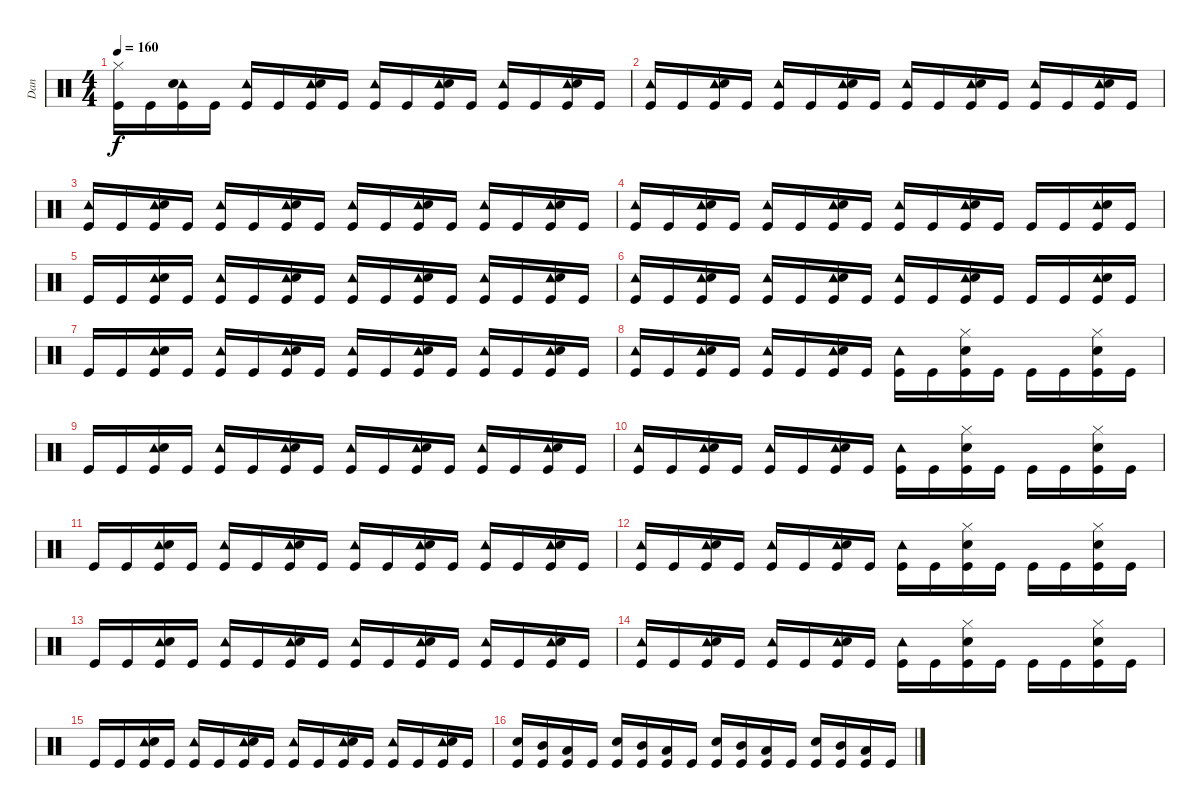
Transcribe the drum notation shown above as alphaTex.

\track ("Dan" "Dan") {instrument percussion}
\staff {score}
\articulation defaults
\ts (4 4)
\tempo 160
\clef neutral
\ks c
("Hi-Hat (closed)" "Kick (hit)").16{dy f} "Kick (hit)".16 ("Tambourine (hit)" "Snare (hit) 2" "Kick (hit)").16 "Kick (hit)".16 ("Tambourine (hit)" "Kick (hit)").16 "Kick (hit)".16 ("Tambourine (hit)" "Snare (hit) 2" "Kick (hit)").16 "Kick (hit)".16 ("Tambourine (hit)" "Kick (hit)").16 "Kick (hit)".16 ("Tambourine (hit)" "Snare (hit) 2" "Kick (hit)").16 "Kick (hit)".16 ("Tambourine (hit)" "Kick (hit)").16 "Kick (hit)".16 ("Tambourine (hit)" "Snare (hit) 2" "Kick (hit)").16 "Kick (hit)".16 |
("Tambourine (hit)" "Kick (hit)").16 "Kick (hit)".16 ("Tambourine (hit)" "Snare (hit) 2" "Kick (hit)").16 "Kick (hit)".16 ("Tambourine (hit)" "Kick (hit)").16 "Kick (hit)".16 ("Tambourine (hit)" "Snare (hit) 2" "Kick (hit)").16 "Kick (hit)".16 ("Tambourine (hit)" "Kick (hit)").16 "Kick (hit)".16 ("Tambourine (hit)" "Snare (hit) 2" "Kick (hit)").16 "Kick (hit)".16 ("Tambourine (hit)" "Kick (hit)").16 "Kick (hit)".16 ("Tambourine (hit)" "Snare (hit) 2" "Kick (hit)").16 "Kick (hit)".16 |
("Tambourine (hit)" "Kick (hit)").16 "Kick (hit)".16 ("Tambourine (hit)" "Snare (hit) 2" "Kick (hit)").16 "Kick (hit)".16 ("Tambourine (hit)" "Kick (hit)").16 "Kick (hit)".16 ("Tambourine (hit)" "Snare (hit) 2" "Kick (hit)").16 "Kick (hit)".16 ("Tambourine (hit)" "Kick (hit)").16 "Kick (hit)".16 ("Tambourine (hit)" "Snare (hit) 2" "Kick (hit)").16 "Kick (hit)".16 ("Tambourine (hit)" "Kick (hit)").16 "Kick (hit)".16 ("Tambourine (hit)" "Snare (hit) 2" "Kick (hit)").16 "Kick (hit)".16 |
("Tambourine (hit)" "Kick (hit)").16 "Kick (hit)".16 ("Tambourine (hit)" "Snare (hit) 2" "Kick (hit)").16 "Kick (hit)".16 ("Tambourine (hit)" "Kick (hit)").16 "Kick (hit)".16 ("Tambourine (hit)" "Snare (hit) 2" "Kick (hit)").16 "Kick (hit)".16 ("Tambourine (hit)" "Kick (hit)").16 "Kick (hit)".16 ("Tambourine (hit)" "Snare (hit) 2" "Kick (hit)").16 "Kick (hit)".16 "Kick (hit)".16 "Kick (hit)".16 ("Tambourine (hit)" "Snare (hit) 2" "Kick (hit)").16 "Kick (hit)".16 |
"Kick (hit)".16 "Kick (hit)".16 ("Tambourine (hit)" "Snare (hit) 2" "Kick (hit)").16 "Kick (hit)".16 ("Tambourine (hit)" "Kick (hit)").16 "Kick (hit)".16 ("Tambourine (hit)" "Snare (hit) 2" "Kick (hit)").16 "Kick (hit)".16 ("Tambourine (hit)" "Kick (hit)").16 "Kick (hit)".16 ("Tambourine (hit)" "Snare (hit) 2" "Kick (hit)").16 "Kick (hit)".16 ("Tambourine (hit)" "Kick (hit)").16 "Kick (hit)".16 ("Tambourine (hit)" "Snare (hit) 2" "Kick (hit)").16 "Kick (hit)".16 |
("Tambourine (hit)" "Kick (hit)").16 "Kick (hit)".16 ("Tambourine (hit)" "Snare (hit) 2" "Kick (hit)").16 "Kick (hit)".16 ("Tambourine (hit)" "Kick (hit)").16 "Kick (hit)".16 ("Tambourine (hit)" "Snare (hit) 2" "Kick (hit)").16 "Kick (hit)".16 ("Tambourine (hit)" "Kick (hit)").16 "Kick (hit)".16 ("Tambourine (hit)" "Snare (hit) 2" "Kick (hit)").16 "Kick (hit)".16 "Kick (hit)".16 "Kick (hit)".16 ("Tambourine (hit)" "Snare (hit) 2" "Kick (hit)").16 "Kick (hit)".16 |
"Kick (hit)".16 "Kick (hit)".16 ("Tambourine (hit)" "Snare (hit) 2" "Kick (hit)").16 "Kick (hit)".16 ("Tambourine (hit)" "Kick (hit)").16 "Kick (hit)".16 ("Tambourine (hit)" "Snare (hit) 2" "Kick (hit)").16 "Kick (hit)".16 ("Tambourine (hit)" "Kick (hit)").16 "Kick (hit)".16 ("Tambourine (hit)" "Snare (hit) 2" "Kick (hit)").16 "Kick (hit)".16 ("Tambourine (hit)" "Kick (hit)").16 "Kick (hit)".16 ("Tambourine (hit)" "Snare (hit) 2" "Kick (hit)").16 "Kick (hit)".16 |
("Tambourine (hit)" "Kick (hit)").16 "Kick (hit)".16 ("Tambourine (hit)" "Snare (hit) 2" "Kick (hit)").16 "Kick (hit)".16 ("Tambourine (hit)" "Kick (hit)").16 "Kick (hit)".16 ("Tambourine (hit)" "Snare (hit) 2" "Kick (hit)").16 "Kick (hit)".16 ("Tambourine (hit)" "Kick (hit)").16 "Kick (hit)".16 ("Hi-Hat (closed)" "Snare (hit) 2" "Kick (hit)").16 "Kick (hit)".16 "Kick (hit)".16 "Kick (hit)".16 ("Hi-Hat (closed)" "Snare (hit) 2" "Kick (hit)").16 "Kick (hit)".16 |
"Kick (hit)".16 "Kick (hit)".16 ("Tambourine (hit)" "Snare (hit) 2" "Kick (hit)").16 "Kick (hit)".16 ("Tambourine (hit)" "Kick (hit)").16 "Kick (hit)".16 ("Tambourine (hit)" "Snare (hit) 2" "Kick (hit)").16 "Kick (hit)".16 ("Tambourine (hit)" "Kick (hit)").16 "Kick (hit)".16 ("Tambourine (hit)" "Snare (hit) 2" "Kick (hit)").16 "Kick (hit)".16 ("Tambourine (hit)" "Kick (hit)").16 "Kick (hit)".16 ("Tambourine (hit)" "Snare (hit) 2" "Kick (hit)").16 "Kick (hit)".16 |
("Tambourine (hit)" "Kick (hit)").16 "Kick (hit)".16 ("Tambourine (hit)" "Snare (hit) 2" "Kick (hit)").16 "Kick (hit)".16 ("Tambourine (hit)" "Kick (hit)").16 "Kick (hit)".16 ("Tambourine (hit)" "Snare (hit) 2" "Kick (hit)").16 "Kick (hit)".16 ("Tambourine (hit)" "Kick (hit)").16 "Kick (hit)".16 ("Hi-Hat (closed)" "Snare (hit) 2" "Kick (hit)").16 "Kick (hit)".16 "Kick (hit)".16 "Kick (hit)".16 ("Hi-Hat (closed)" "Snare (hit) 2" "Kick (hit)").16 "Kick (hit)".16 |
"Kick (hit)".16 "Kick (hit)".16 ("Tambourine (hit)" "Snare (hit) 2" "Kick (hit)").16 "Kick (hit)".16 ("Tambourine (hit)" "Kick (hit)").16 "Kick (hit)".16 ("Tambourine (hit)" "Snare (hit) 2" "Kick (hit)").16 "Kick (hit)".16 ("Tambourine (hit)" "Kick (hit)").16 "Kick (hit)".16 ("Tambourine (hit)" "Snare (hit) 2" "Kick (hit)").16 "Kick (hit)".16 ("Tambourine (hit)" "Kick (hit)").16 "Kick (hit)".16 ("Tambourine (hit)" "Snare (hit) 2" "Kick (hit)").16 "Kick (hit)".16 |
("Tambourine (hit)" "Kick (hit)").16 "Kick (hit)".16 ("Tambourine (hit)" "Snare (hit) 2" "Kick (hit)").16 "Kick (hit)".16 ("Tambourine (hit)" "Kick (hit)").16 "Kick (hit)".16 ("Tambourine (hit)" "Snare (hit) 2" "Kick (hit)").16 "Kick (hit)".16 ("Tambourine (hit)" "Kick (hit)").16 "Kick (hit)".16 ("Hi-Hat (closed)" "Snare (hit) 2" "Kick (hit)").16 "Kick (hit)".16 "Kick (hit)".16 "Kick (hit)".16 ("Hi-Hat (closed)" "Snare (hit) 2" "Kick (hit)").16 "Kick (hit)".16 |
"Kick (hit)".16 "Kick (hit)".16 ("Tambourine (hit)" "Snare (hit) 2" "Kick (hit)").16 "Kick (hit)".16 ("Tambourine (hit)" "Kick (hit)").16 "Kick (hit)".16 ("Tambourine (hit)" "Snare (hit) 2" "Kick (hit)").16 "Kick (hit)".16 ("Tambourine (hit)" "Kick (hit)").16 "Kick (hit)".16 ("Tambourine (hit)" "Snare (hit) 2" "Kick (hit)").16 "Kick (hit)".16 ("Tambourine (hit)" "Kick (hit)").16 "Kick (hit)".16 ("Tambourine (hit)" "Snare (hit) 2" "Kick (hit)").16 "Kick (hit)".16 |
("Tambourine (hit)" "Kick (hit)").16 "Kick (hit)".16 ("Tambourine (hit)" "Snare (hit) 2" "Kick (hit)").16 "Kick (hit)".16 ("Tambourine (hit)" "Kick (hit)").16 "Kick (hit)".16 ("Tambourine (hit)" "Snare (hit) 2" "Kick (hit)").16 "Kick (hit)".16 ("Tambourine (hit)" "Kick (hit)").16 "Kick (hit)".16 ("Hi-Hat (closed)" "Snare (hit) 2" "Kick (hit)").16 "Kick (hit)".16 "Kick (hit)".16 "Kick (hit)".16 ("Hi-Hat (closed)" "Snare (hit) 2" "Kick (hit)").16 "Kick (hit)".16 |
"Kick (hit)".16 "Kick (hit)".16 ("Tambourine (hit)" "Snare (hit) 2" "Kick (hit)").16 "Kick (hit)".16 ("Tambourine (hit)" "Kick (hit)").16 "Kick (hit)".16 ("Tambourine (hit)" "Snare (hit) 2" "Kick (hit)").16 "Kick (hit)".16 ("Tambourine (hit)" "Kick (hit)").16 "Kick (hit)".16 ("Tambourine (hit)" "Snare (hit) 2" "Kick (hit)").16 "Kick (hit)".16 ("Tambourine (hit)" "Kick (hit)").16 "Kick (hit)".16 ("Tambourine (hit)" "Snare (hit) 2" "Kick (hit)").16 "Kick (hit)".16 |
("Snare (hit) 2" "Kick (hit)").16 ("Mid Tom (hit)" "Kick (hit)").16 ("Low Tom (hit)" "Kick (hit)").16 "Kick (hit)".16 ("Snare (hit) 2" "Kick (hit)").16 ("Mid Tom (hit)" "Kick (hit)").16 ("Low Tom (hit)" "Kick (hit)").16 "Kick (hit)".16 ("Snare (hit) 2" "Kick (hit)").16 ("Mid Tom (hit)" "Kick (hit)").16 ("Low Tom (hit)" "Kick (hit)").16 "Kick (hit)".16 ("Snare (hit) 2" "Kick (hit)").16 ("Mid Tom (hit)" "Kick (hit)").16 ("Low Tom (hit)" "Kick (hit)").16 "Kick (hit)".16
